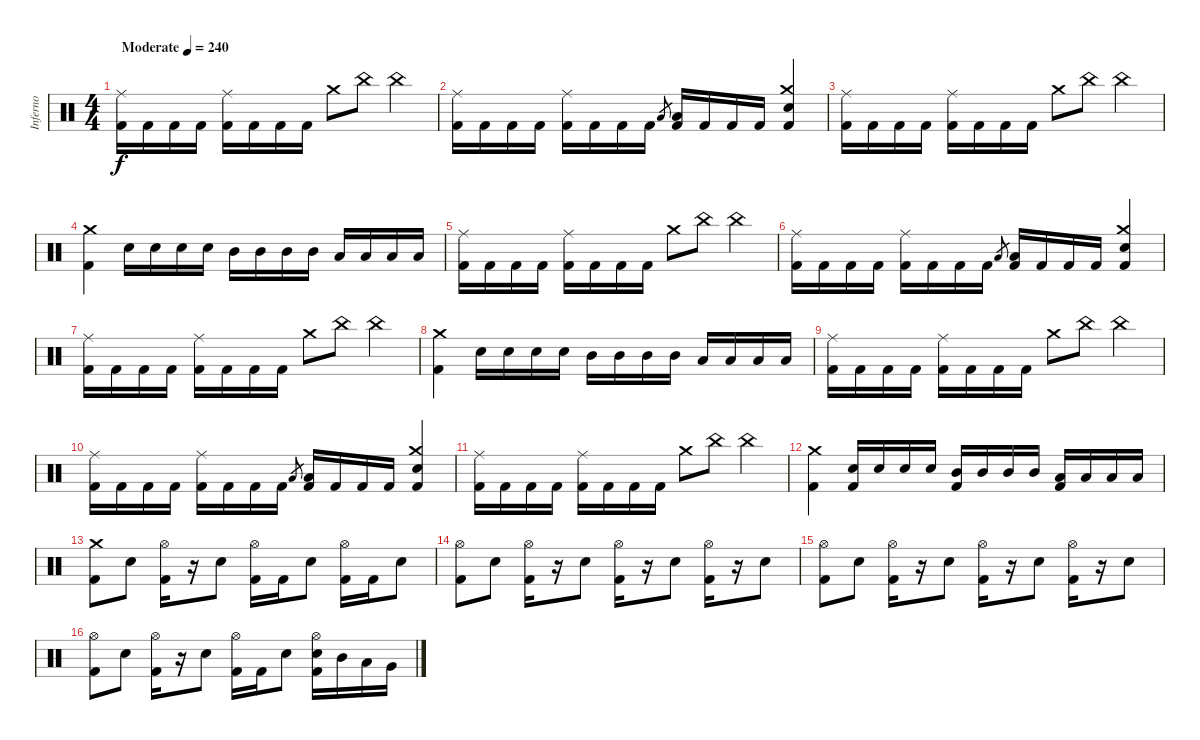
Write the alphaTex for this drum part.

\track ("Inferno" "Inferno") {instrument percussion}
\staff {score}
\articulation defaults
\ts (4 4)
\tempo (240 "Moderate")
\clef neutral
\ks c
("Ride (middle)" "Kick (hit) 2").16{dy f} "Kick (hit) 2".16 "Kick (hit) 2".16 "Kick (hit) 2".16 ("Ride (middle)" "Kick (hit) 2").16 "Kick (hit) 2".16 "Kick (hit) 2".16 "Kick (hit) 2".16 "Crash medium (hit)".8 "China (hit)".8 "China (hit)".4 |
("Ride (middle)" "Kick (hit) 2").16 "Kick (hit) 2".16 "Kick (hit) 2".16 "Kick (hit) 2".16 ("Ride (middle)" "Kick (hit) 2").16 "Kick (hit) 2".16 "Kick (hit) 2".16 "Kick (hit) 2".16 "Low Floor Tom (hit)".8{gr} ("Low Floor Tom (hit)" "Kick (hit) 2").16 "Kick (hit) 2".16 "Kick (hit) 2".16 "Kick (hit) 2".16 ("Crash medium (hit)" "Snare (hit) 2" "Kick (hit) 2").4 |
("Ride (middle)" "Kick (hit) 2").16 "Kick (hit) 2".16 "Kick (hit) 2".16 "Kick (hit) 2".16 ("Ride (middle)" "Kick (hit) 2").16 "Kick (hit) 2".16 "Kick (hit) 2".16 "Kick (hit) 2".16 "Crash medium (hit)".8 "China (hit)".8 "China (hit)".4 |
("Crash medium (hit)" "Kick (hit) 2").4 "Snare (hit) 2".16 "Snare (hit) 2".16 "Snare (hit) 2".16 "Snare (hit) 2".16 "Mid Tom (hit)".16 "Mid Tom (hit)".16 "Mid Tom (hit)".16 "Mid Tom (hit)".16 "Low Tom (hit)".16 "Low Tom (hit)".16 "Low Tom (hit)".16 "Low Tom (hit)".16 |
("Ride (middle)" "Kick (hit) 2").16 "Kick (hit) 2".16 "Kick (hit) 2".16 "Kick (hit) 2".16 ("Ride (middle)" "Kick (hit) 2").16 "Kick (hit) 2".16 "Kick (hit) 2".16 "Kick (hit) 2".16 "Crash medium (hit)".8 "China (hit)".8 "China (hit)".4 |
("Ride (middle)" "Kick (hit) 2").16 "Kick (hit) 2".16 "Kick (hit) 2".16 "Kick (hit) 2".16 ("Ride (middle)" "Kick (hit) 2").16 "Kick (hit) 2".16 "Kick (hit) 2".16 "Kick (hit) 2".16 "Low Floor Tom (hit)".8{gr} ("Low Floor Tom (hit)" "Kick (hit) 2").16 "Kick (hit) 2".16 "Kick (hit) 2".16 "Kick (hit) 2".16 ("Crash medium (hit)" "Snare (hit) 2" "Kick (hit) 2").4 |
("Ride (middle)" "Kick (hit) 2").16 "Kick (hit) 2".16 "Kick (hit) 2".16 "Kick (hit) 2".16 ("Ride (middle)" "Kick (hit) 2").16 "Kick (hit) 2".16 "Kick (hit) 2".16 "Kick (hit) 2".16 "Crash medium (hit)".8 "China (hit)".8 "China (hit)".4 |
("Crash medium (hit)" "Kick (hit) 2").4 "Snare (hit) 2".16 "Snare (hit) 2".16 "Snare (hit) 2".16 "Snare (hit) 2".16 "Mid Tom (hit)".16 "Mid Tom (hit)".16 "Mid Tom (hit)".16 "Mid Tom (hit)".16 "Low Tom (hit)".16 "Low Tom (hit)".16 "Low Tom (hit)".16 "Low Tom (hit)".16 |
("Ride (middle)" "Kick (hit) 2").16 "Kick (hit) 2".16 "Kick (hit) 2".16 "Kick (hit) 2".16 ("Ride (middle)" "Kick (hit) 2").16 "Kick (hit) 2".16 "Kick (hit) 2".16 "Kick (hit) 2".16 "Crash medium (hit)".8 "China (hit)".8 "China (hit)".4 |
("Ride (middle)" "Kick (hit) 2").16 "Kick (hit) 2".16 "Kick (hit) 2".16 "Kick (hit) 2".16 ("Ride (middle)" "Kick (hit) 2").16 "Kick (hit) 2".16 "Kick (hit) 2".16 "Kick (hit) 2".16 "Low Floor Tom (hit)".8{gr} ("Low Floor Tom (hit)" "Kick (hit) 2").16 "Kick (hit) 2".16 "Kick (hit) 2".16 "Kick (hit) 2".16 ("Crash medium (hit)" "Snare (hit) 2" "Kick (hit) 2").4 |
("Ride (middle)" "Kick (hit) 2").16 "Kick (hit) 2".16 "Kick (hit) 2".16 "Kick (hit) 2".16 ("Ride (middle)" "Kick (hit) 2").16 "Kick (hit) 2".16 "Kick (hit) 2".16 "Kick (hit) 2".16 "Crash medium (hit)".8 "China (hit)".8 "China (hit)".4 |
("Crash medium (hit)" "Kick (hit) 2").4 ("Snare (hit) 2" "Kick (hit) 2").16 "Snare (hit) 2".16 "Snare (hit) 2".16 "Snare (hit) 2".16 ("Mid Tom (hit)" "Kick (hit) 2").16 "Mid Tom (hit)".16 "Mid Tom (hit)".16 "Mid Tom (hit)".16 ("Low Tom (hit)" "Kick (hit) 2").16 "Low Tom (hit)".16 "Low Tom (hit)".16 "Low Tom (hit)".16 |
("Crash medium (hit)" "Kick (hit) 2").8 "Snare (hit) 2".8 ("Hi-Hat (open)" "Kick (hit) 2").16 r.16 "Snare (hit) 2".8 ("Hi-Hat (open)" "Kick (hit) 2").16 "Kick (hit) 2".16 "Snare (hit) 2".8 ("Hi-Hat (open)" "Kick (hit) 2").16 "Kick (hit) 2".16 "Snare (hit) 2".8 |
("Hi-Hat (open)" "Kick (hit) 2").8 "Snare (hit) 2".8 ("Hi-Hat (open)" "Kick (hit) 2").16 r.16 "Snare (hit) 2".8 ("Hi-Hat (open)" "Kick (hit) 2").16 r.16 "Snare (hit) 2".8 ("Hi-Hat (open)" "Kick (hit) 2").16 r.16 "Snare (hit) 2".8 |
("Hi-Hat (open)" "Kick (hit) 2").8 "Snare (hit) 2".8 ("Hi-Hat (open)" "Kick (hit) 2").16 r.16 "Snare (hit) 2".8 ("Hi-Hat (open)" "Kick (hit) 2").16 r.16 "Snare (hit) 2".8 ("Hi-Hat (open)" "Kick (hit) 2").16 r.16 "Snare (hit) 2".8 |
("Hi-Hat (open)" "Kick (hit) 2").8 "Snare (hit) 2".8 ("Hi-Hat (open)" "Kick (hit) 2").16 r.16 "Snare (hit) 2".8 ("Hi-Hat (open)" "Kick (hit) 2").16 "Kick (hit) 2".16 "Snare (hit) 2".8 ("Hi-Hat (open)" "Snare (hit) 2" "Kick (hit) 2").16 "Mid Tom (hit)".16 "Low Tom (hit)".16 "Very Low Tom (hit)".16
